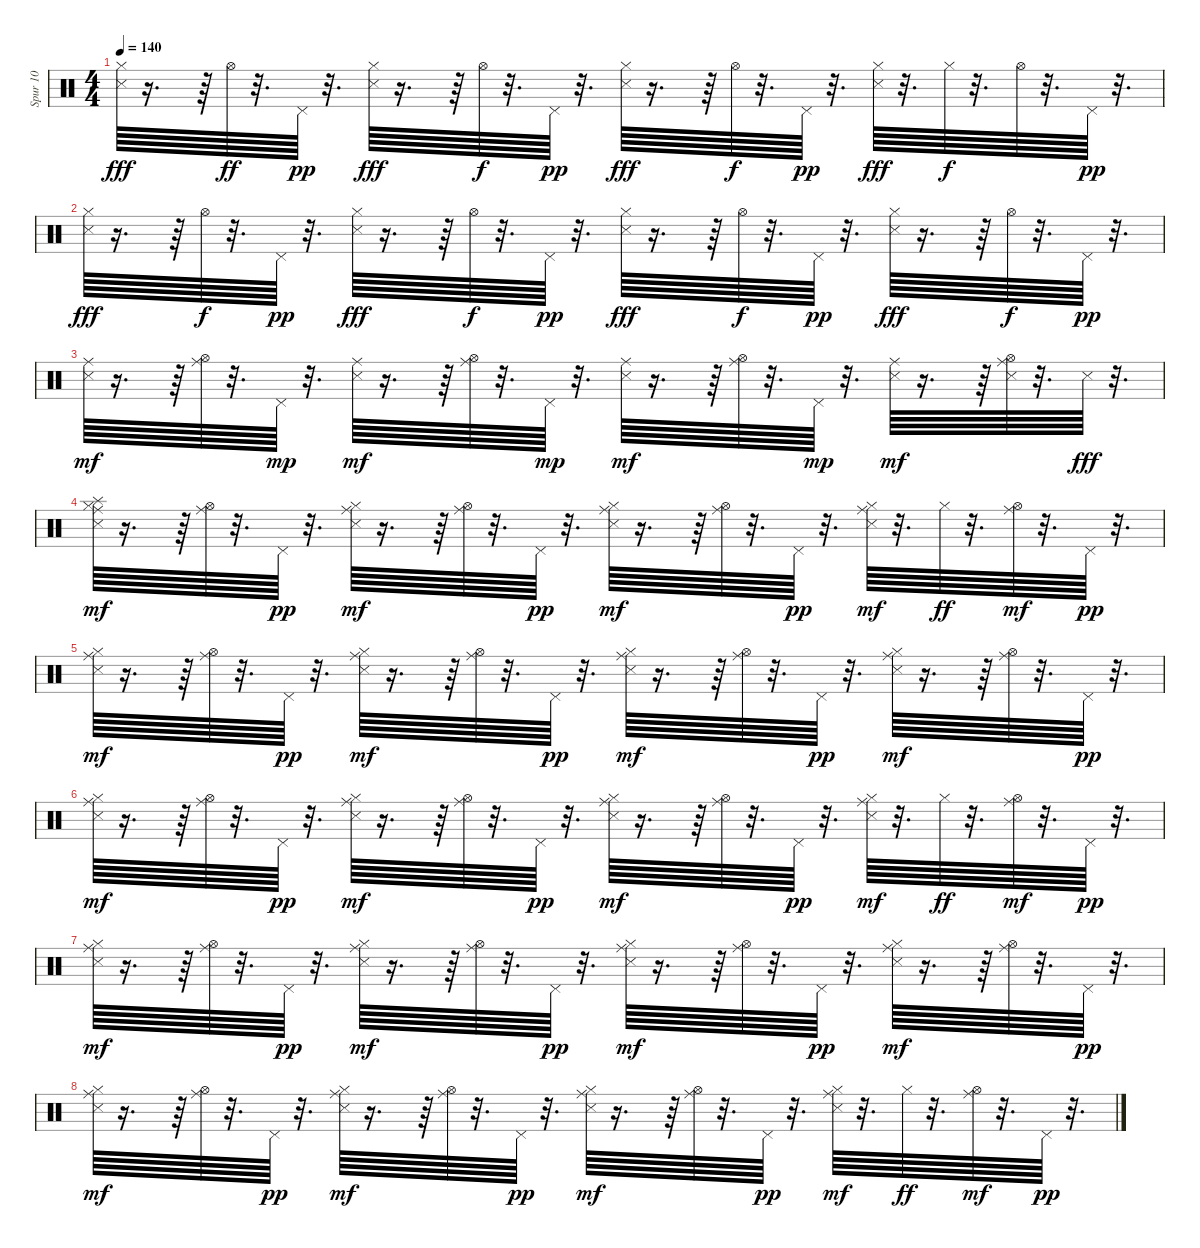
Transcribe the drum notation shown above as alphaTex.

\track ("Spur 10" "Spur 10") {instrument percussion}
\staff {score}
\articulation defaults
\ts (4 4)
\tempo 140
\clef neutral
\ks c
("Metronome (hit)" "Hi-Hat (closed)").64{dy fff} r.16{d} r.64 "Hi-Hat (open)".64{dy ff} r.32{d} "Pedal Hi-Hat (hit)".64{dy pp} r.32{d} ("Metronome (hit)" "Hi-Hat (closed)").64{dy fff} r.16{d} r.64 "Hi-Hat (open)".64{dy f} r.32{d} "Pedal Hi-Hat (hit)".64{dy pp} r.32{d} ("Metronome (hit)" "Hi-Hat (closed)").64{dy fff} r.16{d} r.64 "Hi-Hat (open)".64{dy f} r.32{d} "Pedal Hi-Hat (hit)".64{dy pp} r.32{d} ("Metronome (hit)" "Hi-Hat (closed)").64{dy fff} r.32{d} "Hi-Hat (closed)".64{dy f} r.32{d} "Hi-Hat (open)".64 r.32{d} "Pedal Hi-Hat (hit)".64{dy pp} r.32{d} |
("Metronome (hit)" "Hi-Hat (closed)").64{dy fff} r.16{d} r.64 "Hi-Hat (open)".64{dy f} r.32{d} "Pedal Hi-Hat (hit)".64{dy pp} r.32{d} ("Metronome (hit)" "Hi-Hat (closed)").64{dy fff} r.16{d} r.64 "Hi-Hat (open)".64{dy f} r.32{d} "Pedal Hi-Hat (hit)".64{dy pp} r.32{d} ("Metronome (hit)" "Hi-Hat (closed)").64{dy fff} r.16{d} r.64 "Hi-Hat (open)".64{dy f} r.32{d} "Pedal Hi-Hat (hit)".64{dy pp} r.32{d} ("Metronome (hit)" "Hi-Hat (closed)").64{dy fff} r.16{d} r.64 "Hi-Hat (open)".64{dy f} r.32{d} "Pedal Hi-Hat (hit)".64{dy pp} r.32{d} |
("Metronome (hit)" "Ride (middle)").64{dy mf} r.16{d} r.64 ("Hi-Hat (open)" "Ride (middle)").64 r.32{d} "Pedal Hi-Hat (hit)".64{dy mp} r.32{d} ("Metronome (hit)" "Ride (middle)").64{dy mf} r.16{d} r.64 ("Hi-Hat (open)" "Ride (middle)").64 r.32{d} "Pedal Hi-Hat (hit)".64{dy mp} r.32{d} ("Metronome (hit)" "Ride (middle)").64{dy mf} r.16{d} r.64 ("Hi-Hat (open)" "Ride (middle)").64 r.32{d} "Pedal Hi-Hat (hit)".64{dy mp} r.32{d} ("Metronome (hit)" "Ride (middle)").64{dy mf} r.16{d} r.64 ("Metronome (hit)" "Hi-Hat (open)" "Ride (middle)").64 r.32{d} "Metronome (hit)".64{dy fff} r.32{d} |
("Splash (hit)" "Metronome (hit)" "Hi-Hat (closed)" "Ride (middle)").64{dy mf} r.16{d} r.64 ("Hi-Hat (open)" "Ride (middle)").64 r.32{d} "Pedal Hi-Hat (hit)".64{dy pp} r.32{d} ("Metronome (hit)" "Hi-Hat (closed)" "Ride (middle)").64{dy mf} r.16{d} r.64 ("Hi-Hat (open)" "Ride (middle)").64 r.32{d} "Pedal Hi-Hat (hit)".64{dy pp} r.32{d} ("Metronome (hit)" "Hi-Hat (closed)" "Ride (middle)").64{dy mf} r.16{d} r.64 ("Hi-Hat (open)" "Ride (middle)").64 r.32{d} "Pedal Hi-Hat (hit)".64{dy pp} r.32{d} ("Metronome (hit)" "Hi-Hat (closed)" "Ride (middle)").64{dy mf} r.32{d} "Hi-Hat (closed)".64{dy ff} r.32{d} ("Hi-Hat (open)" "Ride (middle)").64{dy mf} r.32{d} "Pedal Hi-Hat (hit)".64{dy pp} r.32{d} |
("Metronome (hit)" "Hi-Hat (closed)" "Ride (middle)").64{dy mf} r.16{d} r.64 ("Hi-Hat (open)" "Ride (middle)").64 r.32{d} "Pedal Hi-Hat (hit)".64{dy pp} r.32{d} ("Metronome (hit)" "Hi-Hat (closed)" "Ride (middle)").64{dy mf} r.16{d} r.64 ("Hi-Hat (open)" "Ride (middle)").64 r.32{d} "Pedal Hi-Hat (hit)".64{dy pp} r.32{d} ("Metronome (hit)" "Hi-Hat (closed)" "Ride (middle)").64{dy mf} r.16{d} r.64 ("Hi-Hat (open)" "Ride (middle)").64 r.32{d} "Pedal Hi-Hat (hit)".64{dy pp} r.32{d} ("Metronome (hit)" "Hi-Hat (closed)" "Ride (middle)").64{dy mf} r.16{d} r.64 ("Hi-Hat (open)" "Ride (middle)").64 r.32{d} "Pedal Hi-Hat (hit)".64{dy pp} r.32{d} |
("Metronome (hit)" "Hi-Hat (closed)" "Ride (middle)").64{dy mf} r.16{d} r.64 ("Hi-Hat (open)" "Ride (middle)").64 r.32{d} "Pedal Hi-Hat (hit)".64{dy pp} r.32{d} ("Metronome (hit)" "Hi-Hat (closed)" "Ride (middle)").64{dy mf} r.16{d} r.64 ("Hi-Hat (open)" "Ride (middle)").64 r.32{d} "Pedal Hi-Hat (hit)".64{dy pp} r.32{d} ("Metronome (hit)" "Hi-Hat (closed)" "Ride (middle)").64{dy mf} r.16{d} r.64 ("Hi-Hat (open)" "Ride (middle)").64 r.32{d} "Pedal Hi-Hat (hit)".64{dy pp} r.32{d} ("Metronome (hit)" "Hi-Hat (closed)" "Ride (middle)").64{dy mf} r.32{d} "Hi-Hat (closed)".64{dy ff} r.32{d} ("Hi-Hat (open)" "Ride (middle)").64{dy mf} r.32{d} "Pedal Hi-Hat (hit)".64{dy pp} r.32{d} |
("Metronome (hit)" "Hi-Hat (closed)" "Ride (middle)").64{dy mf} r.16{d} r.64 ("Hi-Hat (open)" "Ride (middle)").64 r.32{d} "Pedal Hi-Hat (hit)".64{dy pp} r.32{d} ("Metronome (hit)" "Hi-Hat (closed)" "Ride (middle)").64{dy mf} r.16{d} r.64 ("Hi-Hat (open)" "Ride (middle)").64 r.32{d} "Pedal Hi-Hat (hit)".64{dy pp} r.32{d} ("Metronome (hit)" "Hi-Hat (closed)" "Ride (middle)").64{dy mf} r.16{d} r.64 ("Hi-Hat (open)" "Ride (middle)").64 r.32{d} "Pedal Hi-Hat (hit)".64{dy pp} r.32{d} ("Metronome (hit)" "Hi-Hat (closed)" "Ride (middle)").64{dy mf} r.16{d} r.64 ("Hi-Hat (open)" "Ride (middle)").64 r.32{d} "Pedal Hi-Hat (hit)".64{dy pp} r.32{d} |
("Metronome (hit)" "Hi-Hat (closed)" "Ride (middle)").64{dy mf} r.16{d} r.64 ("Hi-Hat (open)" "Ride (middle)").64 r.32{d} "Pedal Hi-Hat (hit)".64{dy pp} r.32{d} ("Metronome (hit)" "Hi-Hat (closed)" "Ride (middle)").64{dy mf} r.16{d} r.64 ("Hi-Hat (open)" "Ride (middle)").64 r.32{d} "Pedal Hi-Hat (hit)".64{dy pp} r.32{d} ("Metronome (hit)" "Hi-Hat (closed)" "Ride (middle)").64{dy mf} r.16{d} r.64 ("Hi-Hat (open)" "Ride (middle)").64 r.32{d} "Pedal Hi-Hat (hit)".64{dy pp} r.32{d} ("Metronome (hit)" "Hi-Hat (closed)" "Ride (middle)").64{dy mf} r.32{d} "Hi-Hat (closed)".64{dy ff} r.32{d} ("Hi-Hat (open)" "Ride (middle)").64{dy mf} r.32{d} "Pedal Hi-Hat (hit)".64{dy pp} r.32{d}
